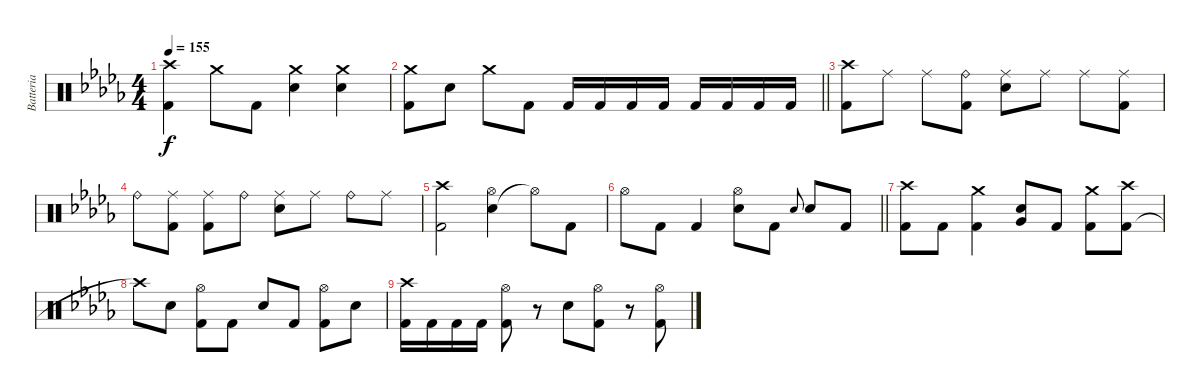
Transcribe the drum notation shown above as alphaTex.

\track ("Batteria" "Batteria") {instrument percussion}
\staff {score}
\articulation defaults
\ts (4 4)
\tempo 155
\clef neutral
\ks bbminor
("Kick (hit) 2" "Crash high (hit)").4{dy f} "Crash medium (hit)".8 "Kick (hit) 2".8 ("Snare (hit) 2" "Crash medium (hit)").4 ("Snare (hit) 2" "Crash medium (hit)").4 |
\barLineRight lightlight
("Kick (hit) 2" "Crash medium (hit)").8 "Snare (hit) 2".8 "Crash medium (hit)".8 "Kick (hit) 2".8 "Kick (hit) 2".16 "Kick (hit) 2".16 "Kick (hit) 2".16 "Kick (hit) 2".16 "Kick (hit) 2".16 "Kick (hit) 2".16 "Kick (hit) 2".16 "Kick (hit) 2".16 |
("Kick (hit) 2" "Crash high (hit)").8 "Ride (middle)".8 "Ride (middle)".8 ("Kick (hit) 2" "Ride (bell)").8 ("Snare (hit) 2" "Ride (middle)").8 "Ride (middle)".8 "Ride (middle)".8 ("Kick (hit) 2" "Ride (middle)").8 |
"Ride (bell)".8 ("Kick (hit) 2" "Ride (middle)").8 ("Kick (hit) 2" "Ride (middle)").8 "Ride (bell)".8 ("Snare (hit) 2" "Ride (middle)").8 "Ride (middle)".8 "Ride (bell)".8 "Ride (middle)".8 |
("Kick (hit) 2" "Crash high (hit)").2 ("Snare (hit) 2" "Hi-Hat (open)").4 "Hi-Hat (open)"{t}.8 "Kick (hit) 2".8 |
\barLineRight lightlight "Hi-Hat (open)".8 "Kick (hit) 2".8 "Kick (hit) 2".4
("Snare (hit) 2" "Hi-Hat (open)").8 "Kick (hit) 2".8 "Snare (hit) 2".8{gr onbeat} "Snare (hit) 2".8 "Kick (hit) 2".8 |
("Kick (hit) 2" "Crash high (hit)").8 "Kick (hit) 2".8 ("Kick (hit) 2" "Crash medium (hit)").4 ("Snare (hit) 2" "Very Low Tom (hit)").8 "Kick (hit) 2".8 ("Kick (hit) 2" "Crash medium (hit)").8 ("Kick (hit) 2" "Crash high (hit)").8 |
"Crash high (hit)"{t}.8 "Snare (hit) 2".8 ("Kick (hit) 2" "Hi-Hat (open)").8 "Kick (hit) 2".8 "Snare (hit) 2".8 "Kick (hit) 2".8 ("Kick (hit) 2" "Hi-Hat (open)").8 "Snare (hit) 2".8 |
("Kick (hit) 2" "Crash high (hit)").16 "Kick (hit) 2".16 "Kick (hit) 2".16 "Kick (hit) 2".16 ("Kick (hit) 2" "Hi-Hat (open)").8 r.8 "Snare (hit) 2".8 ("Kick (hit) 2" "Hi-Hat (open)").8 r.8 ("Kick (hit) 2" "Hi-Hat (open)").8
